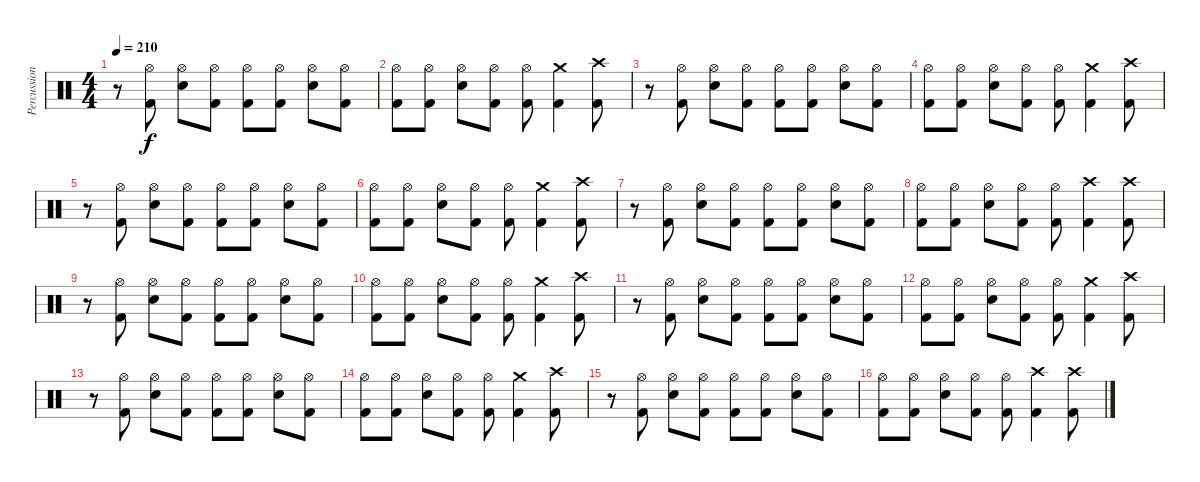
\track ("Percussion" "Percussion") {instrument percussion}
\staff {score}
\articulation defaults
\ts (4 4)
\tempo 210
\clef neutral
\ks c
r.8{dy f} ("Hi-Hat (open)" "Kick (hit) 2").8 ("Hi-Hat (open)" "Electric Snare (hit)").8 ("Hi-Hat (open)" "Kick (hit) 2").8 ("Hi-Hat (open)" "Kick (hit) 2").8 ("Hi-Hat (open)" "Kick (hit) 2").8 ("Hi-Hat (open)" "Electric Snare (hit)").8 ("Hi-Hat (open)" "Kick (hit) 2").8 |
("Hi-Hat (open)" "Kick (hit) 2").8 ("Hi-Hat (open)" "Kick (hit) 2").8 ("Hi-Hat (open)" "Electric Snare (hit)").8 ("Hi-Hat (open)" "Kick (hit) 2").8 ("Hi-Hat (open)" "Kick (hit) 2").8 ("Crash medium (hit)" "Kick (hit) 2").4 ("Crash high (hit)" "Kick (hit) 2").8 |
r.8 ("Hi-Hat (open)" "Kick (hit) 2").8 ("Hi-Hat (open)" "Electric Snare (hit)").8 ("Hi-Hat (open)" "Kick (hit) 2").8 ("Hi-Hat (open)" "Kick (hit) 2").8 ("Hi-Hat (open)" "Kick (hit) 2").8 ("Hi-Hat (open)" "Electric Snare (hit)").8 ("Hi-Hat (open)" "Kick (hit) 2").8 |
("Hi-Hat (open)" "Kick (hit) 2").8 ("Hi-Hat (open)" "Kick (hit) 2").8 ("Hi-Hat (open)" "Electric Snare (hit)").8 ("Hi-Hat (open)" "Kick (hit) 2").8 ("Hi-Hat (open)" "Kick (hit) 2").8 ("Crash medium (hit)" "Kick (hit) 2").4 ("Crash high (hit)" "Kick (hit) 2").8 |
r.8 ("Hi-Hat (open)" "Kick (hit) 2").8 ("Hi-Hat (open)" "Electric Snare (hit)").8 ("Hi-Hat (open)" "Kick (hit) 2").8 ("Hi-Hat (open)" "Kick (hit) 2").8 ("Hi-Hat (open)" "Kick (hit) 2").8 ("Hi-Hat (open)" "Electric Snare (hit)").8 ("Hi-Hat (open)" "Kick (hit) 2").8 |
("Hi-Hat (open)" "Kick (hit) 2").8 ("Hi-Hat (open)" "Kick (hit) 2").8 ("Hi-Hat (open)" "Electric Snare (hit)").8 ("Hi-Hat (open)" "Kick (hit) 2").8 ("Hi-Hat (open)" "Kick (hit) 2").8 ("Crash medium (hit)" "Kick (hit) 2").4 ("Crash high (hit)" "Kick (hit) 2").8 |
r.8 ("Hi-Hat (open)" "Kick (hit) 2").8 ("Hi-Hat (open)" "Electric Snare (hit)").8 ("Hi-Hat (open)" "Kick (hit) 2").8 ("Hi-Hat (open)" "Kick (hit) 2").8 ("Hi-Hat (open)" "Kick (hit) 2").8 ("Hi-Hat (open)" "Electric Snare (hit)").8 ("Hi-Hat (open)" "Kick (hit) 2").8 |
("Hi-Hat (open)" "Kick (hit) 2").8 ("Hi-Hat (open)" "Kick (hit) 2").8 ("Hi-Hat (open)" "Electric Snare (hit)").8 ("Hi-Hat (open)" "Kick (hit) 2").8 ("Hi-Hat (open)" "Kick (hit) 2").8 ("Crash high (hit)" "Kick (hit) 2").4 ("Crash high (hit)" "Kick (hit) 2").8 |
r.8 ("Hi-Hat (open)" "Kick (hit) 2").8 ("Hi-Hat (open)" "Electric Snare (hit)").8 ("Hi-Hat (open)" "Kick (hit) 2").8 ("Hi-Hat (open)" "Kick (hit) 2").8 ("Hi-Hat (open)" "Kick (hit) 2").8 ("Hi-Hat (open)" "Electric Snare (hit)").8 ("Hi-Hat (open)" "Kick (hit) 2").8 |
("Hi-Hat (open)" "Kick (hit) 2").8 ("Hi-Hat (open)" "Kick (hit) 2").8 ("Hi-Hat (open)" "Electric Snare (hit)").8 ("Hi-Hat (open)" "Kick (hit) 2").8 ("Hi-Hat (open)" "Kick (hit) 2").8 ("Crash medium (hit)" "Kick (hit) 2").4 ("Crash high (hit)" "Kick (hit) 2").8 |
r.8 ("Hi-Hat (open)" "Kick (hit) 2").8 ("Hi-Hat (open)" "Electric Snare (hit)").8 ("Hi-Hat (open)" "Kick (hit) 2").8 ("Hi-Hat (open)" "Kick (hit) 2").8 ("Hi-Hat (open)" "Kick (hit) 2").8 ("Hi-Hat (open)" "Electric Snare (hit)").8 ("Hi-Hat (open)" "Kick (hit) 2").8 |
("Hi-Hat (open)" "Kick (hit) 2").8 ("Hi-Hat (open)" "Kick (hit) 2").8 ("Hi-Hat (open)" "Electric Snare (hit)").8 ("Hi-Hat (open)" "Kick (hit) 2").8 ("Hi-Hat (open)" "Kick (hit) 2").8 ("Crash medium (hit)" "Kick (hit) 2").4 ("Crash high (hit)" "Kick (hit) 2").8 |
r.8 ("Hi-Hat (open)" "Kick (hit) 2").8 ("Hi-Hat (open)" "Electric Snare (hit)").8 ("Hi-Hat (open)" "Kick (hit) 2").8 ("Hi-Hat (open)" "Kick (hit) 2").8 ("Hi-Hat (open)" "Kick (hit) 2").8 ("Hi-Hat (open)" "Electric Snare (hit)").8 ("Hi-Hat (open)" "Kick (hit) 2").8 |
("Hi-Hat (open)" "Kick (hit) 2").8 ("Hi-Hat (open)" "Kick (hit) 2").8 ("Hi-Hat (open)" "Electric Snare (hit)").8 ("Hi-Hat (open)" "Kick (hit) 2").8 ("Hi-Hat (open)" "Kick (hit) 2").8 ("Crash medium (hit)" "Kick (hit) 2").4 ("Crash high (hit)" "Kick (hit) 2").8 |
r.8 ("Hi-Hat (open)" "Kick (hit) 2").8 ("Hi-Hat (open)" "Electric Snare (hit)").8 ("Hi-Hat (open)" "Kick (hit) 2").8 ("Hi-Hat (open)" "Kick (hit) 2").8 ("Hi-Hat (open)" "Kick (hit) 2").8 ("Hi-Hat (open)" "Electric Snare (hit)").8 ("Hi-Hat (open)" "Kick (hit) 2").8 |
("Hi-Hat (open)" "Kick (hit) 2").8 ("Hi-Hat (open)" "Kick (hit) 2").8 ("Hi-Hat (open)" "Electric Snare (hit)").8 ("Hi-Hat (open)" "Kick (hit) 2").8 ("Hi-Hat (open)" "Kick (hit) 2").8 ("Crash high (hit)" "Kick (hit) 2").4 ("Crash high (hit)" "Kick (hit) 2").8
